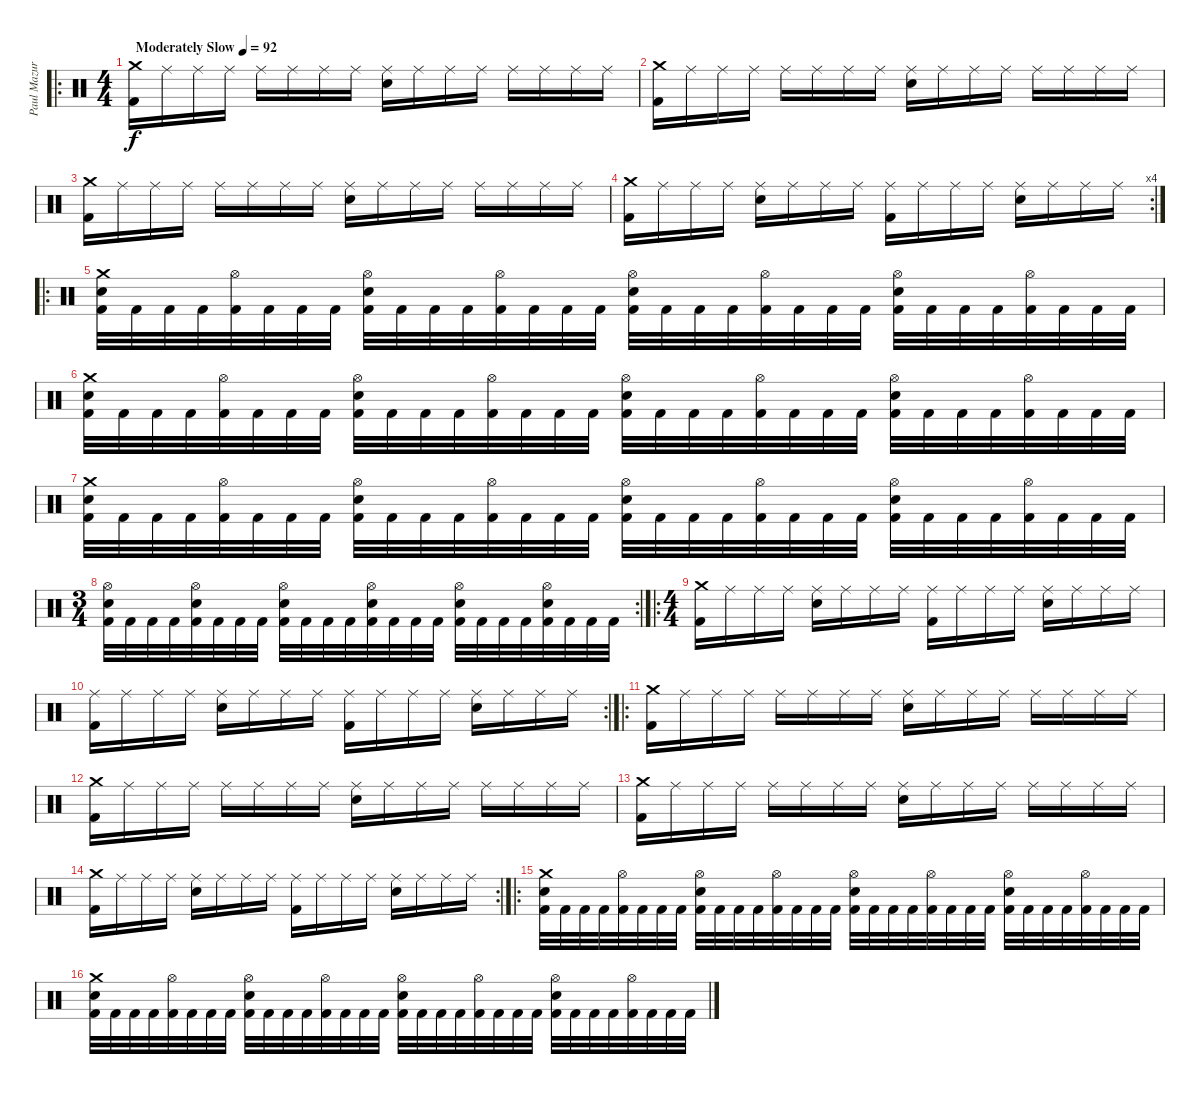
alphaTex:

\track ("Paul Mazurkiewicz" "Paul Mazur") {instrument percussion}
\staff {score}
\articulation defaults
\ro
\ts (4 4)
\tempo (92 "Moderately Slow")
\clef neutral
\ks c
("Crash medium (hit)" "Kick (hit) 2").16{dy f} "Ride (middle)".16 "Ride (middle)".16 "Ride (middle)".16 "Ride (middle)".16 "Ride (middle)".16 "Ride (middle)".16 "Ride (middle)".16 ("Ride (middle)" "Electric Snare (hit)").16 "Ride (middle)".16 "Ride (middle)".16 "Ride (middle)".16 "Ride (middle)".16 "Ride (middle)".16 "Ride (middle)".16 "Ride (middle)".16 |
("Crash medium (hit)" "Kick (hit) 2").16 "Ride (middle)".16 "Ride (middle)".16 "Ride (middle)".16 "Ride (middle)".16 "Ride (middle)".16 "Ride (middle)".16 "Ride (middle)".16 ("Ride (middle)" "Electric Snare (hit)").16 "Ride (middle)".16 "Ride (middle)".16 "Ride (middle)".16 "Ride (middle)".16 "Ride (middle)".16 "Ride (middle)".16 "Ride (middle)".16 |
("Crash medium (hit)" "Kick (hit) 2").16 "Ride (middle)".16 "Ride (middle)".16 "Ride (middle)".16 "Ride (middle)".16 "Ride (middle)".16 "Ride (middle)".16 "Ride (middle)".16 ("Ride (middle)" "Electric Snare (hit)").16 "Ride (middle)".16 "Ride (middle)".16 "Ride (middle)".16 "Ride (middle)".16 "Ride (middle)".16 "Ride (middle)".16 "Ride (middle)".16 |
\rc 4
("Crash medium (hit)" "Kick (hit) 2").16 "Ride (middle)".16 "Ride (middle)".16 "Ride (middle)".16 ("Ride (middle)" "Electric Snare (hit)").16 "Ride (middle)".16 "Ride (middle)".16 "Ride (middle)".16 ("Ride (middle)" "Kick (hit) 2").16 "Ride (middle)".16 "Ride (middle)".16 "Ride (middle)".16 ("Ride (middle)" "Electric Snare (hit)").16 "Ride (middle)".16 "Ride (middle)".16 "Ride (middle)".16 |
\ro
("Crash medium (hit)" "Electric Snare (hit)" "Kick (hit) 2").32 "Kick (hit) 2".32 "Kick (hit) 2".32 "Kick (hit) 2".32 ("Hi-Hat (open)" "Kick (hit) 2").32 "Kick (hit) 2".32 "Kick (hit) 2".32 "Kick (hit) 2".32 ("Hi-Hat (open)" "Electric Snare (hit)" "Kick (hit) 2").32 "Kick (hit) 2".32 "Kick (hit) 2".32 "Kick (hit) 2".32 ("Hi-Hat (open)" "Kick (hit) 2").32 "Kick (hit) 2".32 "Kick (hit) 2".32 "Kick (hit) 2".32 ("Hi-Hat (open)" "Electric Snare (hit)" "Kick (hit) 2").32 "Kick (hit) 2".32 "Kick (hit) 2".32 "Kick (hit) 2".32 ("Hi-Hat (open)" "Kick (hit) 2").32 "Kick (hit) 2".32 "Kick (hit) 2".32 "Kick (hit) 2".32 ("Hi-Hat (open)" "Electric Snare (hit)" "Kick (hit) 2").32 "Kick (hit) 2".32 "Kick (hit) 2".32 "Kick (hit) 2".32 ("Hi-Hat (open)" "Kick (hit) 2").32 "Kick (hit) 2".32 "Kick (hit) 2".32 "Kick (hit) 2".32 |
("Crash medium (hit)" "Electric Snare (hit)" "Kick (hit) 2").32 "Kick (hit) 2".32 "Kick (hit) 2".32 "Kick (hit) 2".32 ("Hi-Hat (open)" "Kick (hit) 2").32 "Kick (hit) 2".32 "Kick (hit) 2".32 "Kick (hit) 2".32 ("Hi-Hat (open)" "Electric Snare (hit)" "Kick (hit) 2").32 "Kick (hit) 2".32 "Kick (hit) 2".32 "Kick (hit) 2".32 ("Hi-Hat (open)" "Kick (hit) 2").32 "Kick (hit) 2".32 "Kick (hit) 2".32 "Kick (hit) 2".32 ("Hi-Hat (open)" "Electric Snare (hit)" "Kick (hit) 2").32 "Kick (hit) 2".32 "Kick (hit) 2".32 "Kick (hit) 2".32 ("Hi-Hat (open)" "Kick (hit) 2").32 "Kick (hit) 2".32 "Kick (hit) 2".32 "Kick (hit) 2".32 ("Hi-Hat (open)" "Electric Snare (hit)" "Kick (hit) 2").32 "Kick (hit) 2".32 "Kick (hit) 2".32 "Kick (hit) 2".32 ("Hi-Hat (open)" "Kick (hit) 2").32 "Kick (hit) 2".32 "Kick (hit) 2".32 "Kick (hit) 2".32 |
("Crash medium (hit)" "Electric Snare (hit)" "Kick (hit) 2").32 "Kick (hit) 2".32 "Kick (hit) 2".32 "Kick (hit) 2".32 ("Hi-Hat (open)" "Kick (hit) 2").32 "Kick (hit) 2".32 "Kick (hit) 2".32 "Kick (hit) 2".32 ("Hi-Hat (open)" "Electric Snare (hit)" "Kick (hit) 2").32 "Kick (hit) 2".32 "Kick (hit) 2".32 "Kick (hit) 2".32 ("Hi-Hat (open)" "Kick (hit) 2").32 "Kick (hit) 2".32 "Kick (hit) 2".32 "Kick (hit) 2".32 ("Hi-Hat (open)" "Electric Snare (hit)" "Kick (hit) 2").32 "Kick (hit) 2".32 "Kick (hit) 2".32 "Kick (hit) 2".32 ("Hi-Hat (open)" "Kick (hit) 2").32 "Kick (hit) 2".32 "Kick (hit) 2".32 "Kick (hit) 2".32 ("Hi-Hat (open)" "Electric Snare (hit)" "Kick (hit) 2").32 "Kick (hit) 2".32 "Kick (hit) 2".32 "Kick (hit) 2".32 ("Hi-Hat (open)" "Kick (hit) 2").32 "Kick (hit) 2".32 "Kick (hit) 2".32 "Kick (hit) 2".32 |
\rc 2
\ts (3 4)
("Hi-Hat (open)" "Electric Snare (hit)" "Kick (hit) 2").32 "Kick (hit) 2".32 "Kick (hit) 2".32 "Kick (hit) 2".32 ("Hi-Hat (open)" "Electric Snare (hit)" "Kick (hit) 2").32 "Kick (hit) 2".32 "Kick (hit) 2".32 "Kick (hit) 2".32 ("Hi-Hat (open)" "Electric Snare (hit)" "Kick (hit) 2").32 "Kick (hit) 2".32 "Kick (hit) 2".32 "Kick (hit) 2".32 ("Hi-Hat (open)" "Electric Snare (hit)" "Kick (hit) 2").32 "Kick (hit) 2".32 "Kick (hit) 2".32 "Kick (hit) 2".32 ("Hi-Hat (open)" "Electric Snare (hit)" "Kick (hit) 2").32 "Kick (hit) 2".32 "Kick (hit) 2".32 "Kick (hit) 2".32 ("Hi-Hat (open)" "Electric Snare (hit)" "Kick (hit) 2").32 "Kick (hit) 2".32 "Kick (hit) 2".32 "Kick (hit) 2".32 |
\ro
\ts (4 4)
("Crash medium (hit)" "Kick (hit) 2").16 "Ride (middle)".16 "Ride (middle)".16 "Ride (middle)".16 ("Ride (middle)" "Electric Snare (hit)").16 "Ride (middle)".16 "Ride (middle)".16 "Ride (middle)".16 ("Ride (middle)" "Kick (hit) 2").16 "Ride (middle)".16 "Ride (middle)".16 "Ride (middle)".16 ("Ride (middle)" "Electric Snare (hit)").16 "Ride (middle)".16 "Ride (middle)".16 "Ride (middle)".16 |
\rc 2
("Ride (middle)" "Kick (hit) 2").16 "Ride (middle)".16 "Ride (middle)".16 "Ride (middle)".16 ("Ride (middle)" "Electric Snare (hit)").16 "Ride (middle)".16 "Ride (middle)".16 "Ride (middle)".16 ("Ride (middle)" "Kick (hit) 2").16 "Ride (middle)".16 "Ride (middle)".16 "Ride (middle)".16 ("Ride (middle)" "Electric Snare (hit)").16 "Ride (middle)".16 "Ride (middle)".16 "Ride (middle)".16 |
\ro
("Crash medium (hit)" "Kick (hit) 2").16 "Ride (middle)".16 "Ride (middle)".16 "Ride (middle)".16 "Ride (middle)".16 "Ride (middle)".16 "Ride (middle)".16 "Ride (middle)".16 ("Ride (middle)" "Electric Snare (hit)").16 "Ride (middle)".16 "Ride (middle)".16 "Ride (middle)".16 "Ride (middle)".16 "Ride (middle)".16 "Ride (middle)".16 "Ride (middle)".16 |
("Crash medium (hit)" "Kick (hit) 2").16 "Ride (middle)".16 "Ride (middle)".16 "Ride (middle)".16 "Ride (middle)".16 "Ride (middle)".16 "Ride (middle)".16 "Ride (middle)".16 ("Ride (middle)" "Electric Snare (hit)").16 "Ride (middle)".16 "Ride (middle)".16 "Ride (middle)".16 "Ride (middle)".16 "Ride (middle)".16 "Ride (middle)".16 "Ride (middle)".16 |
("Crash medium (hit)" "Kick (hit) 2").16 "Ride (middle)".16 "Ride (middle)".16 "Ride (middle)".16 "Ride (middle)".16 "Ride (middle)".16 "Ride (middle)".16 "Ride (middle)".16 ("Ride (middle)" "Electric Snare (hit)").16 "Ride (middle)".16 "Ride (middle)".16 "Ride (middle)".16 "Ride (middle)".16 "Ride (middle)".16 "Ride (middle)".16 "Ride (middle)".16 |
\rc 2
("Crash medium (hit)" "Kick (hit) 2").16 "Ride (middle)".16 "Ride (middle)".16 "Ride (middle)".16 ("Ride (middle)" "Electric Snare (hit)").16 "Ride (middle)".16 "Ride (middle)".16 "Ride (middle)".16 ("Ride (middle)" "Kick (hit) 2").16 "Ride (middle)".16 "Ride (middle)".16 "Ride (middle)".16 ("Ride (middle)" "Electric Snare (hit)").16 "Ride (middle)".16 "Ride (middle)".16 "Ride (middle)".16 |
\ro
("Crash medium (hit)" "Electric Snare (hit)" "Kick (hit) 2").32 "Kick (hit) 2".32 "Kick (hit) 2".32 "Kick (hit) 2".32 ("Hi-Hat (open)" "Kick (hit) 2").32 "Kick (hit) 2".32 "Kick (hit) 2".32 "Kick (hit) 2".32 ("Hi-Hat (open)" "Electric Snare (hit)" "Kick (hit) 2").32 "Kick (hit) 2".32 "Kick (hit) 2".32 "Kick (hit) 2".32 ("Hi-Hat (open)" "Kick (hit) 2").32 "Kick (hit) 2".32 "Kick (hit) 2".32 "Kick (hit) 2".32 ("Hi-Hat (open)" "Electric Snare (hit)" "Kick (hit) 2").32 "Kick (hit) 2".32 "Kick (hit) 2".32 "Kick (hit) 2".32 ("Hi-Hat (open)" "Kick (hit) 2").32 "Kick (hit) 2".32 "Kick (hit) 2".32 "Kick (hit) 2".32 ("Hi-Hat (open)" "Electric Snare (hit)" "Kick (hit) 2").32 "Kick (hit) 2".32 "Kick (hit) 2".32 "Kick (hit) 2".32 ("Hi-Hat (open)" "Kick (hit) 2").32 "Kick (hit) 2".32 "Kick (hit) 2".32 "Kick (hit) 2".32 |
("Crash medium (hit)" "Electric Snare (hit)" "Kick (hit) 2").32 "Kick (hit) 2".32 "Kick (hit) 2".32 "Kick (hit) 2".32 ("Hi-Hat (open)" "Kick (hit) 2").32 "Kick (hit) 2".32 "Kick (hit) 2".32 "Kick (hit) 2".32 ("Hi-Hat (open)" "Electric Snare (hit)" "Kick (hit) 2").32 "Kick (hit) 2".32 "Kick (hit) 2".32 "Kick (hit) 2".32 ("Hi-Hat (open)" "Kick (hit) 2").32 "Kick (hit) 2".32 "Kick (hit) 2".32 "Kick (hit) 2".32 ("Hi-Hat (open)" "Electric Snare (hit)" "Kick (hit) 2").32 "Kick (hit) 2".32 "Kick (hit) 2".32 "Kick (hit) 2".32 ("Hi-Hat (open)" "Kick (hit) 2").32 "Kick (hit) 2".32 "Kick (hit) 2".32 "Kick (hit) 2".32 ("Hi-Hat (open)" "Electric Snare (hit)" "Kick (hit) 2").32 "Kick (hit) 2".32 "Kick (hit) 2".32 "Kick (hit) 2".32 ("Hi-Hat (open)" "Kick (hit) 2").32 "Kick (hit) 2".32 "Kick (hit) 2".32 "Kick (hit) 2".32
